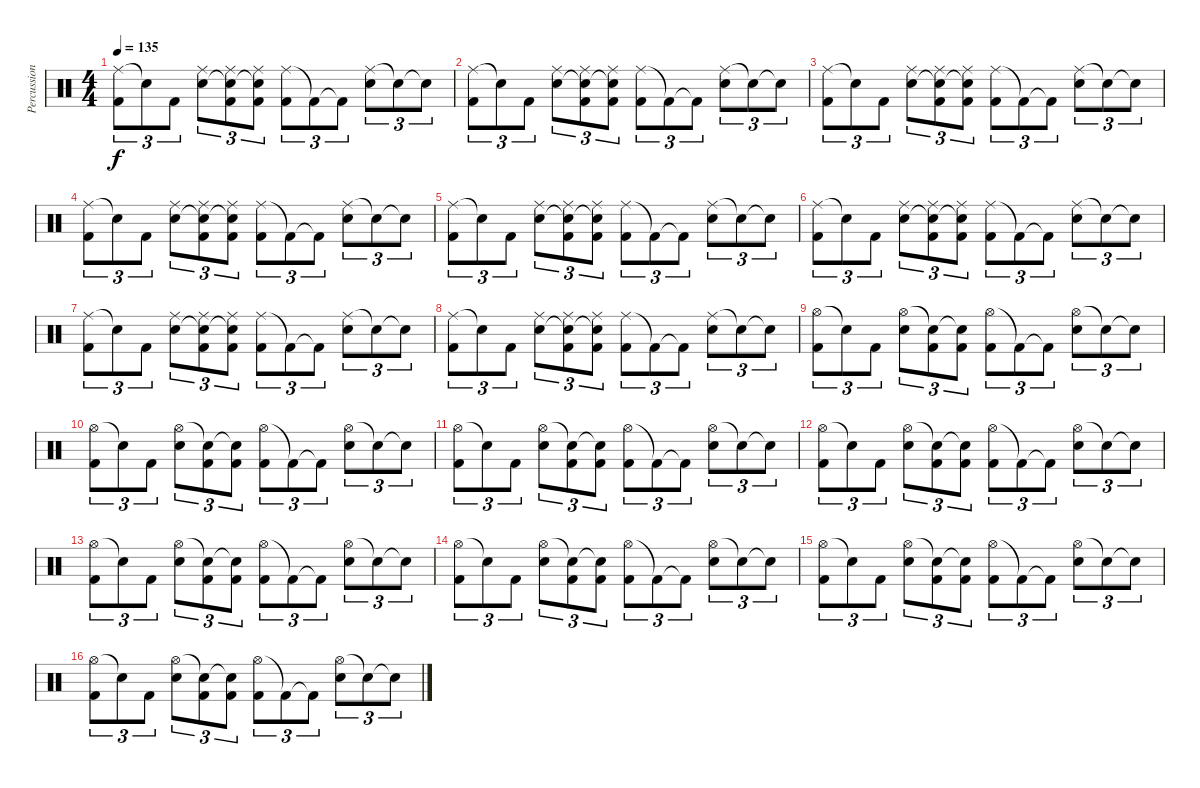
\track ("Percussions" "Percussion") {instrument percussion}
\staff {score}
\articulation defaults
\ts (4 4)
\tempo 135
\clef neutral
\ks c
("Ride (middle)" "Kick (hit) 2").8{tu (3 2) dy f} "Snare (hit)"{t}.8{tu (3 2)} "Kick (hit) 2".8{tu (3 2)} ("Ride (middle)" "Snare (hit) 2").8{tu (3 2)} ("Ride (middle)" "Snare (hit)"{t} "Kick (hit) 2").8{tu (3 2)} ("Ride (middle)" "Snare (hit)"{t} "Kick (hit) 2").8{tu (3 2)} ("Ride (middle)" "Kick (hit) 2").8{tu (3 2)} "Kick (hit) 2"{t}.8{tu (3 2)} "Kick (hit) 2"{t}.8{tu (3 2)} ("Ride (middle)" "Snare (hit) 2").8{tu (3 2)} "Snare (hit)"{t}.8{tu (3 2)} "Snare (hit)"{t}.8{tu (3 2)} |
("Ride (middle)" "Kick (hit) 2").8{tu (3 2)} "Snare (hit)"{t}.8{tu (3 2)} "Kick (hit) 2".8{tu (3 2)} ("Ride (middle)" "Snare (hit) 2").8{tu (3 2)} ("Ride (middle)" "Snare (hit)"{t} "Kick (hit) 2").8{tu (3 2)} ("Ride (middle)" "Snare (hit)"{t} "Kick (hit) 2").8{tu (3 2)} ("Ride (middle)" "Kick (hit) 2").8{tu (3 2)} "Kick (hit) 2"{t}.8{tu (3 2)} "Kick (hit) 2"{t}.8{tu (3 2)} ("Ride (middle)" "Snare (hit) 2").8{tu (3 2)} "Snare (hit)"{t}.8{tu (3 2)} "Snare (hit)"{t}.8{tu (3 2)} |
("Ride (middle)" "Kick (hit) 2").8{tu (3 2)} "Snare (hit)"{t}.8{tu (3 2)} "Kick (hit) 2".8{tu (3 2)} ("Ride (middle)" "Snare (hit) 2").8{tu (3 2)} ("Ride (middle)" "Snare (hit)"{t} "Kick (hit) 2").8{tu (3 2)} ("Ride (middle)" "Snare (hit)"{t} "Kick (hit) 2").8{tu (3 2)} ("Ride (middle)" "Kick (hit) 2").8{tu (3 2)} "Kick (hit) 2"{t}.8{tu (3 2)} "Kick (hit) 2"{t}.8{tu (3 2)} ("Ride (middle)" "Snare (hit) 2").8{tu (3 2)} "Snare (hit)"{t}.8{tu (3 2)} "Snare (hit)"{t}.8{tu (3 2)} |
("Ride (middle)" "Kick (hit) 2").8{tu (3 2)} "Snare (hit)"{t}.8{tu (3 2)} "Kick (hit) 2".8{tu (3 2)} ("Ride (middle)" "Snare (hit) 2").8{tu (3 2)} ("Ride (middle)" "Snare (hit)"{t} "Kick (hit) 2").8{tu (3 2)} ("Ride (middle)" "Snare (hit)"{t} "Kick (hit) 2").8{tu (3 2)} ("Ride (middle)" "Kick (hit) 2").8{tu (3 2)} "Kick (hit) 2"{t}.8{tu (3 2)} "Kick (hit) 2"{t}.8{tu (3 2)} ("Ride (middle)" "Snare (hit) 2").8{tu (3 2)} "Snare (hit)"{t}.8{tu (3 2)} "Snare (hit)"{t}.8{tu (3 2)} |
("Ride (middle)" "Kick (hit) 2").8{tu (3 2)} "Snare (hit)"{t}.8{tu (3 2)} "Kick (hit) 2".8{tu (3 2)} ("Ride (middle)" "Snare (hit) 2").8{tu (3 2)} ("Ride (middle)" "Snare (hit)"{t} "Kick (hit) 2").8{tu (3 2)} ("Ride (middle)" "Snare (hit)"{t} "Kick (hit) 2").8{tu (3 2)} ("Ride (middle)" "Kick (hit) 2").8{tu (3 2)} "Kick (hit) 2"{t}.8{tu (3 2)} "Kick (hit) 2"{t}.8{tu (3 2)} ("Ride (middle)" "Snare (hit) 2").8{tu (3 2)} "Snare (hit)"{t}.8{tu (3 2)} "Snare (hit)"{t}.8{tu (3 2)} |
("Ride (middle)" "Kick (hit) 2").8{tu (3 2)} "Snare (hit)"{t}.8{tu (3 2)} "Kick (hit) 2".8{tu (3 2)} ("Ride (middle)" "Snare (hit) 2").8{tu (3 2)} ("Ride (middle)" "Snare (hit)"{t} "Kick (hit) 2").8{tu (3 2)} ("Ride (middle)" "Snare (hit)"{t} "Kick (hit) 2").8{tu (3 2)} ("Ride (middle)" "Kick (hit) 2").8{tu (3 2)} "Kick (hit) 2"{t}.8{tu (3 2)} "Kick (hit) 2"{t}.8{tu (3 2)} ("Ride (middle)" "Snare (hit) 2").8{tu (3 2)} "Snare (hit)"{t}.8{tu (3 2)} "Snare (hit)"{t}.8{tu (3 2)} |
("Ride (middle)" "Kick (hit) 2").8{tu (3 2)} "Snare (hit)"{t}.8{tu (3 2)} "Kick (hit) 2".8{tu (3 2)} ("Ride (middle)" "Snare (hit) 2").8{tu (3 2)} ("Ride (middle)" "Snare (hit)"{t} "Kick (hit) 2").8{tu (3 2)} ("Ride (middle)" "Snare (hit)"{t} "Kick (hit) 2").8{tu (3 2)} ("Ride (middle)" "Kick (hit) 2").8{tu (3 2)} "Kick (hit) 2"{t}.8{tu (3 2)} "Kick (hit) 2"{t}.8{tu (3 2)} ("Ride (middle)" "Snare (hit) 2").8{tu (3 2)} "Snare (hit)"{t}.8{tu (3 2)} "Snare (hit)"{t}.8{tu (3 2)} |
("Ride (middle)" "Kick (hit) 2").8{tu (3 2)} "Snare (hit)"{t}.8{tu (3 2)} "Kick (hit) 2".8{tu (3 2)} ("Ride (middle)" "Snare (hit) 2").8{tu (3 2)} ("Ride (middle)" "Snare (hit)"{t} "Kick (hit) 2").8{tu (3 2)} ("Ride (middle)" "Snare (hit)"{t} "Kick (hit) 2").8{tu (3 2)} ("Ride (middle)" "Kick (hit) 2").8{tu (3 2)} "Kick (hit) 2"{t}.8{tu (3 2)} "Kick (hit) 2"{t}.8{tu (3 2)} ("Ride (middle)" "Snare (hit) 2").8{tu (3 2)} "Snare (hit)"{t}.8{tu (3 2)} "Snare (hit)"{t}.8{tu (3 2)} |
("Hi-Hat (open)" "Kick (hit) 2").8{tu (3 2)} "Snare (hit)"{t}.8{tu (3 2)} "Kick (hit) 2".8{tu (3 2)} ("Hi-Hat (open)" "Snare (hit) 2").8{tu (3 2)} ("Snare (hit)"{t} "Kick (hit) 2").8{tu (3 2)} ("Snare (hit)"{t} "Kick (hit) 2").8{tu (3 2)} ("Hi-Hat (open)" "Kick (hit) 2").8{tu (3 2)} "Kick (hit) 2"{t}.8{tu (3 2)} "Kick (hit) 2"{t}.8{tu (3 2)} ("Hi-Hat (open)" "Snare (hit) 2").8{tu (3 2)} "Snare (hit)"{t}.8{tu (3 2)} "Snare (hit)"{t}.8{tu (3 2)} |
("Hi-Hat (open)" "Kick (hit) 2").8{tu (3 2)} "Snare (hit)"{t}.8{tu (3 2)} "Kick (hit) 2".8{tu (3 2)} ("Hi-Hat (open)" "Snare (hit) 2").8{tu (3 2)} ("Snare (hit)"{t} "Kick (hit) 2").8{tu (3 2)} ("Snare (hit)"{t} "Kick (hit) 2").8{tu (3 2)} ("Hi-Hat (open)" "Kick (hit) 2").8{tu (3 2)} "Kick (hit) 2"{t}.8{tu (3 2)} "Kick (hit) 2"{t}.8{tu (3 2)} ("Hi-Hat (open)" "Snare (hit) 2").8{tu (3 2)} "Snare (hit)"{t}.8{tu (3 2)} "Snare (hit)"{t}.8{tu (3 2)} |
("Hi-Hat (open)" "Kick (hit) 2").8{tu (3 2)} "Snare (hit)"{t}.8{tu (3 2)} "Kick (hit) 2".8{tu (3 2)} ("Hi-Hat (open)" "Snare (hit) 2").8{tu (3 2)} ("Snare (hit)"{t} "Kick (hit) 2").8{tu (3 2)} ("Snare (hit)"{t} "Kick (hit) 2").8{tu (3 2)} ("Hi-Hat (open)" "Kick (hit) 2").8{tu (3 2)} "Kick (hit) 2"{t}.8{tu (3 2)} "Kick (hit) 2"{t}.8{tu (3 2)} ("Hi-Hat (open)" "Snare (hit) 2").8{tu (3 2)} "Snare (hit)"{t}.8{tu (3 2)} "Snare (hit)"{t}.8{tu (3 2)} |
("Hi-Hat (open)" "Kick (hit) 2").8{tu (3 2)} "Snare (hit)"{t}.8{tu (3 2)} "Kick (hit) 2".8{tu (3 2)} ("Hi-Hat (open)" "Snare (hit) 2").8{tu (3 2)} ("Snare (hit)"{t} "Kick (hit) 2").8{tu (3 2)} ("Snare (hit)"{t} "Kick (hit) 2").8{tu (3 2)} ("Hi-Hat (open)" "Kick (hit) 2").8{tu (3 2)} "Kick (hit) 2"{t}.8{tu (3 2)} "Kick (hit) 2"{t}.8{tu (3 2)} ("Hi-Hat (open)" "Snare (hit) 2").8{tu (3 2)} "Snare (hit)"{t}.8{tu (3 2)} "Snare (hit)"{t}.8{tu (3 2)} |
("Hi-Hat (open)" "Kick (hit) 2").8{tu (3 2)} "Snare (hit)"{t}.8{tu (3 2)} "Kick (hit) 2".8{tu (3 2)} ("Hi-Hat (open)" "Snare (hit) 2").8{tu (3 2)} ("Snare (hit)"{t} "Kick (hit) 2").8{tu (3 2)} ("Snare (hit)"{t} "Kick (hit) 2").8{tu (3 2)} ("Hi-Hat (open)" "Kick (hit) 2").8{tu (3 2)} "Kick (hit) 2"{t}.8{tu (3 2)} "Kick (hit) 2"{t}.8{tu (3 2)} ("Hi-Hat (open)" "Snare (hit) 2").8{tu (3 2)} "Snare (hit)"{t}.8{tu (3 2)} "Snare (hit)"{t}.8{tu (3 2)} |
("Hi-Hat (open)" "Kick (hit) 2").8{tu (3 2)} "Snare (hit)"{t}.8{tu (3 2)} "Kick (hit) 2".8{tu (3 2)} ("Hi-Hat (open)" "Snare (hit) 2").8{tu (3 2)} ("Snare (hit)"{t} "Kick (hit) 2").8{tu (3 2)} ("Snare (hit)"{t} "Kick (hit) 2").8{tu (3 2)} ("Hi-Hat (open)" "Kick (hit) 2").8{tu (3 2)} "Kick (hit) 2"{t}.8{tu (3 2)} "Kick (hit) 2"{t}.8{tu (3 2)} ("Hi-Hat (open)" "Snare (hit) 2").8{tu (3 2)} "Snare (hit)"{t}.8{tu (3 2)} "Snare (hit)"{t}.8{tu (3 2)} |
("Hi-Hat (open)" "Kick (hit) 2").8{tu (3 2)} "Snare (hit)"{t}.8{tu (3 2)} "Kick (hit) 2".8{tu (3 2)} ("Hi-Hat (open)" "Snare (hit) 2").8{tu (3 2)} ("Snare (hit)"{t} "Kick (hit) 2").8{tu (3 2)} ("Snare (hit)"{t} "Kick (hit) 2").8{tu (3 2)} ("Hi-Hat (open)" "Kick (hit) 2").8{tu (3 2)} "Kick (hit) 2"{t}.8{tu (3 2)} "Kick (hit) 2"{t}.8{tu (3 2)} ("Hi-Hat (open)" "Snare (hit) 2").8{tu (3 2)} "Snare (hit)"{t}.8{tu (3 2)} "Snare (hit)"{t}.8{tu (3 2)} |
("Hi-Hat (open)" "Kick (hit) 2").8{tu (3 2)} "Snare (hit)"{t}.8{tu (3 2)} "Kick (hit) 2".8{tu (3 2)} ("Hi-Hat (open)" "Snare (hit) 2").8{tu (3 2)} ("Snare (hit)"{t} "Kick (hit) 2").8{tu (3 2)} ("Snare (hit)"{t} "Kick (hit) 2").8{tu (3 2)} ("Hi-Hat (open)" "Kick (hit) 2").8{tu (3 2)} "Kick (hit) 2"{t}.8{tu (3 2)} "Kick (hit) 2"{t}.8{tu (3 2)} ("Hi-Hat (open)" "Snare (hit) 2").8{tu (3 2)} "Snare (hit)"{t}.8{tu (3 2)} "Snare (hit)"{t}.8{tu (3 2)}
